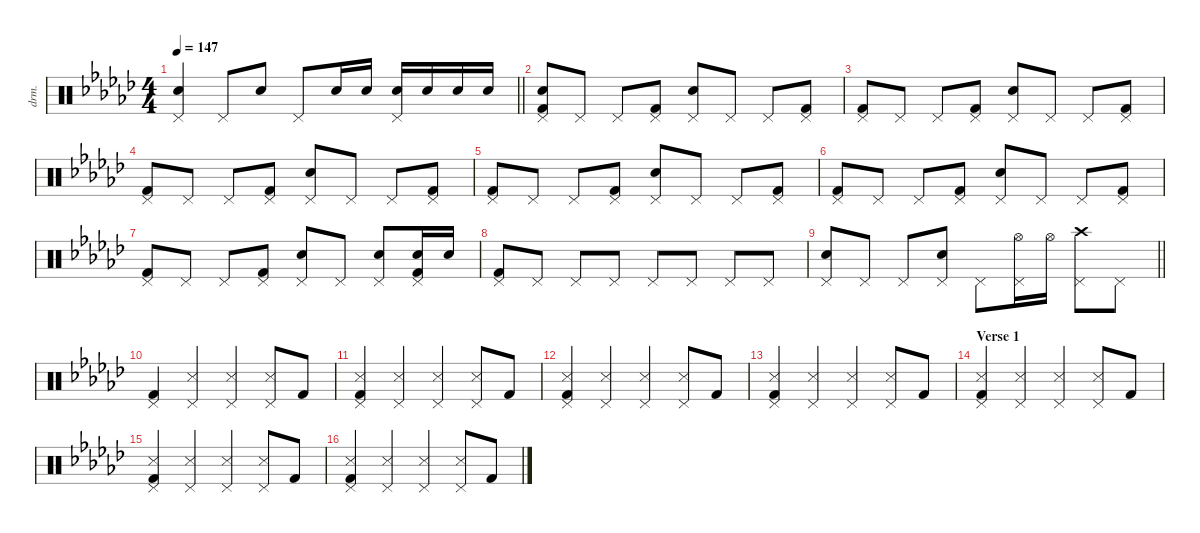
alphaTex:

\defaultSystemsLayout 8
\hideDynamics
\bracketExtendMode nobrackets
\otherSystemsTrackNameOrientation horizontal
\track ("Drums" "drm.") {defaultSystemsLayout 4 instrument percussion}
\staff {score}
\articulation defaults
\ts (4 4)
\tempo 147
\clef neutral
\barLineRight lightlight
\ks ebminor
("Pedal Hi-Hat (hit)"{acc forcenatural} "Snare (hit) 2"{acc forcenatural}).4{dy f beam Up} "Pedal Hi-Hat (hit)"{acc forcenatural}.8{beam Up} "Snare (hit) 2"{acc forcenatural}.8{dy mf beam Up} "Pedal Hi-Hat (hit)"{acc forcenatural}.8{dy f beam Up} "Snare (hit) 2"{acc forcenatural}.16{dy p beam Up} "Snare (hit) 2"{acc forcenatural}.16{dy mp beam Up} ("Pedal Hi-Hat (hit)"{acc forcenatural} "Snare (hit) 2"{acc forcenatural}).16{dy f beam Up} "Snare (hit) 2"{acc forcenatural}.16{dy mf beam Up} "Snare (hit) 2"{acc forcenatural}.16{dy f beam Up} "Snare (hit) 2"{acc forcenatural}.16{dy ff beam Up} |
("Pedal Hi-Hat (hit)"{acc forcenatural} "Kick (hit) 2"{acc forcenatural} "Snare (hit) 2"{acc forcenatural}).8{dy f beam Up} "Pedal Hi-Hat (hit)"{acc forcenatural}.8{dy mp beam Up} "Pedal Hi-Hat (hit)"{acc forcenatural}.8{dy f beam Up} ("Pedal Hi-Hat (hit)"{acc forcenatural} "Kick (hit) 2"{acc forcenatural}).8{dy mp beam Up} ("Pedal Hi-Hat (hit)"{acc forcenatural} "Snare (hit) 2"{acc forcenatural}).8{dy f beam Up} "Pedal Hi-Hat (hit)"{acc forcenatural}.8{dy mp beam Up} "Pedal Hi-Hat (hit)"{acc forcenatural}.8{dy f beam Up} ("Pedal Hi-Hat (hit)"{acc forcenatural} "Kick (hit) 2"{acc forcenatural}).8{dy mp beam Up} |
("Pedal Hi-Hat (hit)"{acc forcenatural} "Kick (hit) 2"{acc forcenatural}).8{dy f beam Up} "Pedal Hi-Hat (hit)"{acc forcenatural}.8{dy mp beam Up} "Pedal Hi-Hat (hit)"{acc forcenatural}.8{dy f beam Up} ("Pedal Hi-Hat (hit)"{acc forcenatural} "Kick (hit) 2"{acc forcenatural}).8{dy mp beam Up} ("Pedal Hi-Hat (hit)"{acc forcenatural} "Snare (hit) 2"{acc forcenatural}).8{dy f beam Up} "Pedal Hi-Hat (hit)"{acc forcenatural}.8{dy mp beam Up} "Pedal Hi-Hat (hit)"{acc forcenatural}.8{dy f beam Up} ("Pedal Hi-Hat (hit)"{acc forcenatural} "Kick (hit) 2"{acc forcenatural}).8{dy mp beam Up} |
("Pedal Hi-Hat (hit)"{acc forcenatural} "Kick (hit) 2"{acc forcenatural}).8{dy f beam Up} "Pedal Hi-Hat (hit)"{acc forcenatural}.8{dy mp beam Up} "Pedal Hi-Hat (hit)"{acc forcenatural}.8{dy f beam Up} ("Pedal Hi-Hat (hit)"{acc forcenatural} "Kick (hit) 2"{acc forcenatural}).8{dy mp beam Up} ("Pedal Hi-Hat (hit)"{acc forcenatural} "Snare (hit) 2"{acc forcenatural}).8{dy f beam Up} "Pedal Hi-Hat (hit)"{acc forcenatural}.8{dy mp beam Up} "Pedal Hi-Hat (hit)"{acc forcenatural}.8{dy f beam Up} ("Pedal Hi-Hat (hit)"{acc forcenatural} "Kick (hit) 2"{acc forcenatural}).8{dy mp beam Up} |
("Pedal Hi-Hat (hit)"{acc forcenatural} "Kick (hit) 2"{acc forcenatural}).8{dy f beam Up} "Pedal Hi-Hat (hit)"{acc forcenatural}.8{dy mp beam Up} "Pedal Hi-Hat (hit)"{acc forcenatural}.8{dy f beam Up} ("Pedal Hi-Hat (hit)"{acc forcenatural} "Kick (hit) 2"{acc forcenatural}).8{dy mp beam Up} ("Pedal Hi-Hat (hit)"{acc forcenatural} "Snare (hit) 2"{acc forcenatural}).8{dy f beam Up} "Pedal Hi-Hat (hit)"{acc forcenatural}.8{dy mp beam Up} "Pedal Hi-Hat (hit)"{acc forcenatural}.8{dy f beam Up} ("Pedal Hi-Hat (hit)"{acc forcenatural} "Kick (hit) 2"{acc forcenatural}).8{dy mp beam Up} |
("Pedal Hi-Hat (hit)"{acc forcenatural} "Kick (hit) 2"{acc forcenatural}).8{dy f beam Up} "Pedal Hi-Hat (hit)"{acc forcenatural}.8{dy mp beam Up} "Pedal Hi-Hat (hit)"{acc forcenatural}.8{dy f beam Up} ("Pedal Hi-Hat (hit)"{acc forcenatural} "Kick (hit) 2"{acc forcenatural}).8{dy mp beam Up} ("Pedal Hi-Hat (hit)"{acc forcenatural} "Snare (hit) 2"{acc forcenatural}).8{dy f beam Up} "Pedal Hi-Hat (hit)"{acc forcenatural}.8{dy mp beam Up} "Pedal Hi-Hat (hit)"{acc forcenatural}.8{dy f beam Up} ("Pedal Hi-Hat (hit)"{acc forcenatural} "Kick (hit) 2"{acc forcenatural}).8{dy mp beam Up} |
("Pedal Hi-Hat (hit)"{acc forcenatural} "Kick (hit) 2"{acc forcenatural}).8{dy f beam Up} "Pedal Hi-Hat (hit)"{acc forcenatural}.8{dy mp beam Up} "Pedal Hi-Hat (hit)"{acc forcenatural}.8{dy f beam Up} ("Pedal Hi-Hat (hit)"{acc forcenatural} "Kick (hit) 2"{acc forcenatural}).8{dy mp beam Up} ("Pedal Hi-Hat (hit)"{acc forcenatural} "Snare (hit) 2"{acc forcenatural}).8{dy f beam Up} "Pedal Hi-Hat (hit)"{acc forcenatural}.8{dy mp beam Up} ("Pedal Hi-Hat (hit)"{acc forcenatural} "Snare (hit) 2"{acc forcenatural}).8{dy f beam Up} ("Pedal Hi-Hat (hit)"{acc forcenatural} "Snare (hit) 2"{acc forcenatural} "Kick (hit) 2"{acc forcenatural}).16{dy mp beam Up} "Snare (hit) 2"{acc forcenatural}.16{dy f beam Up} |
("Pedal Hi-Hat (hit)"{acc forcenatural} "Kick (hit) 2"{acc forcenatural}).8{beam Up} "Pedal Hi-Hat (hit)"{acc forcenatural}.8{dy mp beam Up} "Pedal Hi-Hat (hit)"{acc forcenatural}.8{dy f beam Up} "Pedal Hi-Hat (hit)"{acc forcenatural}.8{dy mp beam Up} "Pedal Hi-Hat (hit)"{acc forcenatural}.8{dy f beam Up} "Pedal Hi-Hat (hit)"{acc forcenatural}.8{dy mp beam Up} "Pedal Hi-Hat (hit)"{acc forcenatural}.8{dy f beam Up} "Pedal Hi-Hat (hit)"{acc forcenatural}.8{dy mp beam Up} |
\barLineRight lightlight
("Pedal Hi-Hat (hit)"{acc forcenatural} "Snare (hit) 2"{acc forcenatural}).8{dy f beam Up} "Pedal Hi-Hat (hit)"{acc forcenatural}.8{dy mp beam Up} "Pedal Hi-Hat (hit)"{acc forcenatural}.8{dy f beam Up} ("Pedal Hi-Hat (hit)"{acc forcenatural} "Snare (hit) 2"{acc forcenatural}).8{dy mp beam Up} "Pedal Hi-Hat (hit)"{acc forcenatural}.8{dy f beam Down} ("Pedal Hi-Hat (hit)"{acc forcenatural} "Hi-Hat (open)"{acc forcenatural}).16{dy mp beam Down} "Hi-Hat (open)"{acc forcenatural}.16{dy f beam Down} ("Pedal Hi-Hat (hit)"{acc forcenatural} "Crash high (hit)"{acc forcenatural}).8{beam Down} "Pedal Hi-Hat (hit)"{acc forcenatural}.8{dy mp beam Down} |
("Pedal Hi-Hat (hit)"{acc forcenatural} "Kick (hit) 2"{acc forcenatural}).4{dy f beam Up} ("Pedal Hi-Hat (hit)"{acc forcenatural} "Snare (side stick) 3"{acc forcenatural}).4{beam Up} ("Pedal Hi-Hat (hit)"{acc forcenatural} "Snare (side stick) 3"{acc forcenatural}).4{beam Up} ("Pedal Hi-Hat (hit)"{acc forcenatural} "Snare (side stick) 3"{acc forcenatural}).8{beam Up} "Kick (hit) 2"{acc forcenatural}.8{beam Up} |
("Pedal Hi-Hat (hit)"{acc forcenatural} "Kick (hit) 2"{acc forcenatural} "Snare (side stick) 3"{acc forcenatural}).4{beam Up} ("Pedal Hi-Hat (hit)"{acc forcenatural} "Snare (side stick) 3"{acc forcenatural}).4{beam Up} ("Pedal Hi-Hat (hit)"{acc forcenatural} "Snare (side stick) 3"{acc forcenatural}).4{beam Up} ("Pedal Hi-Hat (hit)"{acc forcenatural} "Snare (side stick) 3"{acc forcenatural}).8{beam Up} "Kick (hit) 2"{acc forcenatural}.8{beam Up} |
("Pedal Hi-Hat (hit)"{acc forcenatural} "Kick (hit) 2"{acc forcenatural} "Snare (side stick) 3"{acc forcenatural}).4{beam Up} ("Pedal Hi-Hat (hit)"{acc forcenatural} "Snare (side stick) 3"{acc forcenatural}).4{beam Up} ("Pedal Hi-Hat (hit)"{acc forcenatural} "Snare (side stick) 3"{acc forcenatural}).4{beam Up} ("Pedal Hi-Hat (hit)"{acc forcenatural} "Snare (side stick) 3"{acc forcenatural}).8{beam Up} "Kick (hit) 2"{acc forcenatural}.8{beam Up} |
("Pedal Hi-Hat (hit)"{acc forcenatural} "Kick (hit) 2"{acc forcenatural} "Snare (side stick) 3"{acc forcenatural}).4{beam Up} ("Pedal Hi-Hat (hit)"{acc forcenatural} "Snare (side stick) 3"{acc forcenatural}).4{beam Up} ("Pedal Hi-Hat (hit)"{acc forcenatural} "Snare (side stick) 3"{acc forcenatural}).4{beam Up} ("Pedal Hi-Hat (hit)"{acc forcenatural} "Snare (side stick) 3"{acc forcenatural}).8{beam Up} "Kick (hit) 2"{acc forcenatural}.8{beam Up} |
\section ("" "Verse 1")
("Pedal Hi-Hat (hit)"{acc forcenatural} "Kick (hit) 2"{acc forcenatural} "Snare (side stick) 3"{acc forcenatural}).4{beam Up} ("Pedal Hi-Hat (hit)"{acc forcenatural} "Snare (side stick) 3"{acc forcenatural}).4{beam Up} ("Pedal Hi-Hat (hit)"{acc forcenatural} "Snare (side stick) 3"{acc forcenatural}).4{beam Up} ("Pedal Hi-Hat (hit)"{acc forcenatural} "Snare (side stick) 3"{acc forcenatural}).8{beam Up} "Kick (hit) 2"{acc forcenatural}.8{beam Up} |
("Pedal Hi-Hat (hit)"{acc forcenatural} "Kick (hit) 2"{acc forcenatural} "Snare (side stick) 3"{acc forcenatural}).4{beam Up} ("Pedal Hi-Hat (hit)"{acc forcenatural} "Snare (side stick) 3"{acc forcenatural}).4{beam Up} ("Pedal Hi-Hat (hit)"{acc forcenatural} "Snare (side stick) 3"{acc forcenatural}).4{beam Up} ("Pedal Hi-Hat (hit)"{acc forcenatural} "Snare (side stick) 3"{acc forcenatural}).8{beam Up} "Kick (hit) 2"{acc forcenatural}.8{beam Up} |
("Pedal Hi-Hat (hit)"{acc forcenatural} "Kick (hit) 2"{acc forcenatural} "Snare (side stick) 3"{acc forcenatural}).4{beam Up} ("Pedal Hi-Hat (hit)"{acc forcenatural} "Snare (side stick) 3"{acc forcenatural}).4{beam Up} ("Pedal Hi-Hat (hit)"{acc forcenatural} "Snare (side stick) 3"{acc forcenatural}).4{beam Up} ("Pedal Hi-Hat (hit)"{acc forcenatural} "Snare (side stick) 3"{acc forcenatural}).8{beam Up} "Kick (hit) 2"{acc forcenatural}.8{beam Up}
